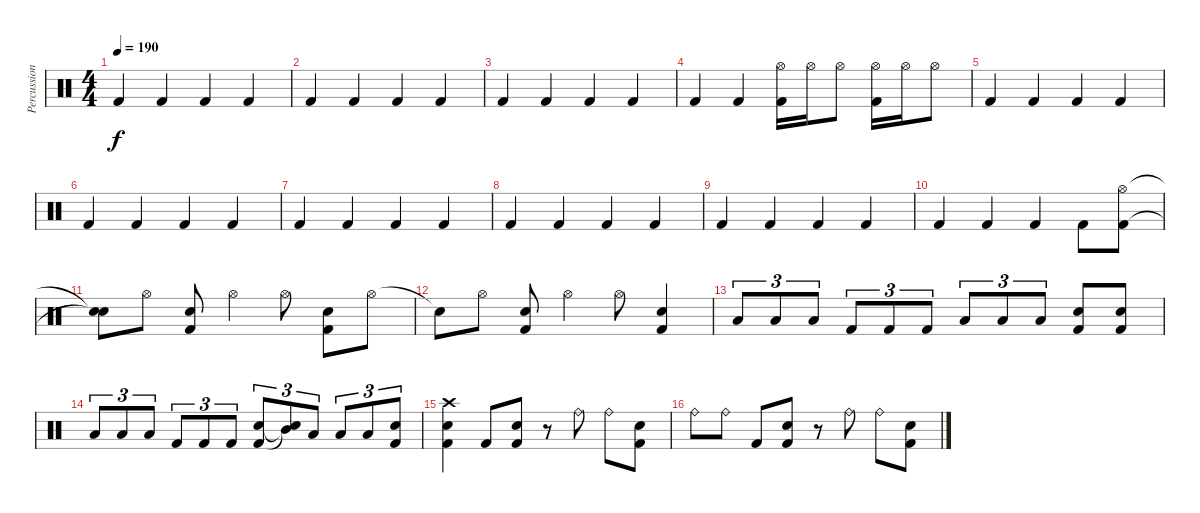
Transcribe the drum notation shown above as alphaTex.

\track ("Percussions" "Percussion") {instrument percussion}
\staff {score}
\articulation defaults
\ts (4 4)
\tempo 190
\clef neutral
\ks c "Kick (hit) 2".4{dy f} "Kick (hit) 2".4 "Kick (hit) 2".4 "Kick (hit) 2".4
|
"Kick (hit) 2".4 "Kick (hit) 2".4 "Kick (hit) 2".4 "Kick (hit) 2".4 |
"Kick (hit) 2".4 "Kick (hit) 2".4 "Kick (hit) 2".4 "Kick (hit) 2".4 |
"Kick (hit) 2".4 "Kick (hit) 2".4 ("Hi-Hat (open)" "Kick (hit) 2").16 "Hi-Hat (open)".16 "Hi-Hat (open)".8 ("Hi-Hat (open)" "Kick (hit) 2").16 "Hi-Hat (open)".16 "Hi-Hat (open)".8 |
"Kick (hit) 2".4 "Kick (hit) 2".4 "Kick (hit) 2".4 "Kick (hit) 2".4 |
"Kick (hit) 2".4 "Kick (hit) 2".4 "Kick (hit) 2".4 "Kick (hit) 2".4 |
"Kick (hit) 2".4 "Kick (hit) 2".4 "Kick (hit) 2".4 "Kick (hit) 2".4 |
"Kick (hit) 2".4 "Kick (hit) 2".4 "Kick (hit) 2".4 "Kick (hit) 2".4 |
"Kick (hit) 2".4 "Kick (hit) 2".4 "Kick (hit) 2".4 "Kick (hit) 2".4 |
"Kick (hit) 2".4 "Kick (hit) 2".4 "Kick (hit) 2".4 "Kick (hit) 2".8 ("Hi-Hat (open)" "Kick (hit) 2").8 |
("Snare (hit)"{t} "Snare (hit)"{t}).8 "Hi-Hat (open)".8 ("Snare (hit) 2" "Kick (hit) 2").8 "Hi-Hat (open)".4 "Hi-Hat (open)".8 ("Snare (hit) 2" "Kick (hit) 2").8 "Hi-Hat (open)".8 |
"Snare (hit)"{t}.8 "Hi-Hat (open)".8 ("Snare (hit) 2" "Kick (hit) 2").8 "Hi-Hat (open)".4 "Hi-Hat (open)".8 ("Snare (hit) 2" "Kick (hit) 2").4 |
"Low Tom (hit)".8{tu (3 2)} "Low Tom (hit)".8{tu (3 2)} "Low Tom (hit)".8{tu (3 2)} "Kick (hit) 2".8{tu (3 2)} "Kick (hit) 2".8{tu (3 2)} "Kick (hit) 2".8{tu (3 2)} "Low Tom (hit)".8{tu (3 2)} "Low Tom (hit)".8{tu (3 2)} "Low Tom (hit)".8{tu (3 2)} ("Snare (hit) 2" "Kick (hit) 2").8 ("Snare (hit) 2" "Kick (hit) 2").8 |
"Low Tom (hit)".8{tu (3 2)} "Low Tom (hit)".8{tu (3 2)} "Low Tom (hit)".8{tu (3 2)} "Kick (hit) 2".8{tu (3 2)} "Kick (hit) 2".8{tu (3 2)} "Kick (hit) 2".8{tu (3 2)} ("Snare (hit) 2" "Kick (hit) 2").8{tu (3 2)} ("Mid Tom (hit)"{t} "Snare (hit)"{t}).8{tu (3 2)} "Low Tom (hit)".8{tu (3 2)} "Low Tom (hit)".8{tu (3 2)} "Low Tom (hit)".8{tu (3 2)} ("Snare (hit) 2" "Kick (hit) 2").8{tu (3 2)} |
("Crash high (hit)" "Snare (hit) 2" "Kick (hit) 2").4 "Kick (hit) 2".8 ("Snare (hit) 2" "Kick (hit) 2").8 r.8 "Ride (bell)".8 "Ride (bell)".8 ("Snare (hit) 2" "Kick (hit) 2").8 |
"Ride (bell)".8 "Ride (bell)".8 "Kick (hit) 2".8 ("Snare (hit) 2" "Kick (hit) 2").8 r.8 "Ride (bell)".8 "Ride (bell)".8 ("Snare (hit) 2" "Kick (hit) 2").8
